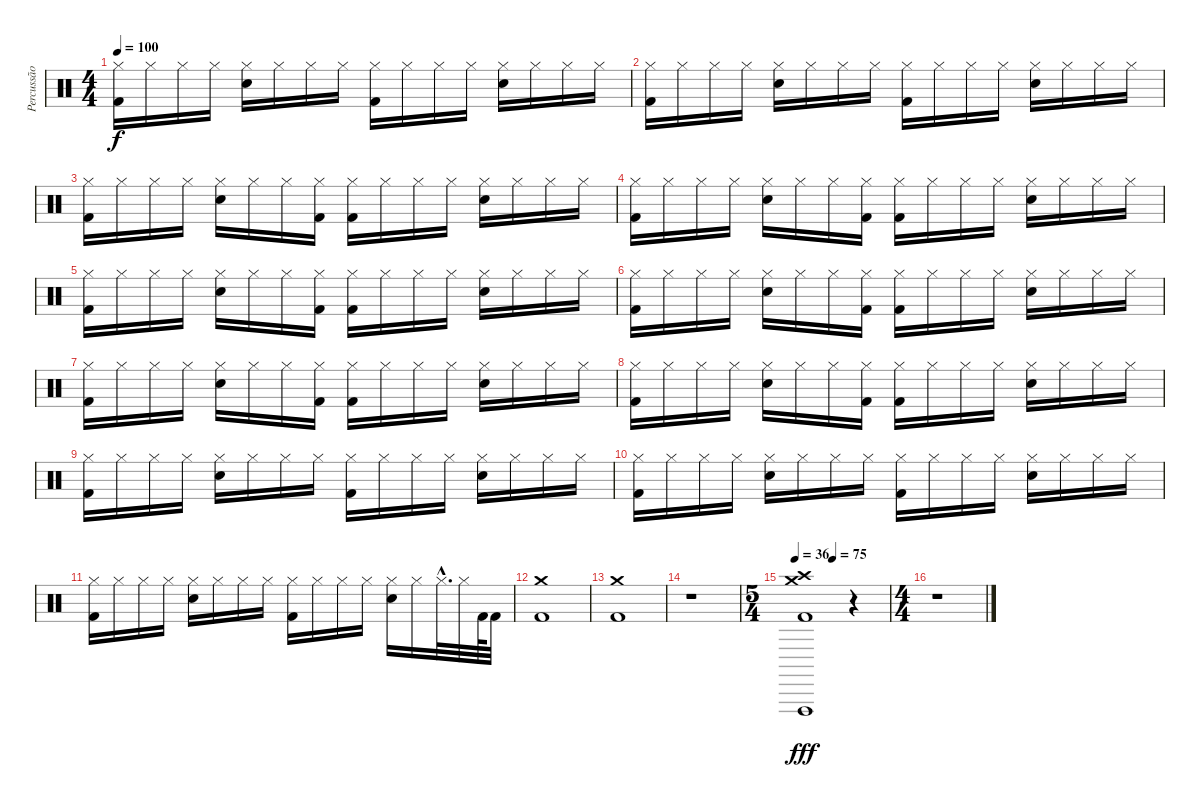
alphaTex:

\track ("Percussão" "Percussão") {instrument percussion}
\staff {score}
\articulation defaults
\ts (4 4)
\tempo 100
\clef neutral
\ks c
("Hi-Hat (closed)" "Kick (hit) 2").16{dy f} "Hi-Hat (closed)".16 "Hi-Hat (closed)".16 "Hi-Hat (closed)".16 ("Hi-Hat (closed)" "Snare (hit) 2").16 "Hi-Hat (closed)".16 "Hi-Hat (closed)".16 "Hi-Hat (closed)".16 ("Hi-Hat (closed)" "Kick (hit) 2").16 "Hi-Hat (closed)".16 "Hi-Hat (closed)".16 "Hi-Hat (closed)".16 ("Hi-Hat (closed)" "Snare (hit) 2").16 "Hi-Hat (closed)".16 "Hi-Hat (closed)".16 "Hi-Hat (closed)".16 |
("Hi-Hat (closed)" "Kick (hit) 2").16 "Hi-Hat (closed)".16 "Hi-Hat (closed)".16 "Hi-Hat (closed)".16 ("Hi-Hat (closed)" "Snare (hit) 2").16 "Hi-Hat (closed)".16 "Hi-Hat (closed)".16 "Hi-Hat (closed)".16 ("Hi-Hat (closed)" "Kick (hit) 2").16 "Hi-Hat (closed)".16 "Hi-Hat (closed)".16 "Hi-Hat (closed)".16 ("Hi-Hat (closed)" "Snare (hit) 2").16 "Hi-Hat (closed)".16 "Hi-Hat (closed)".16 "Hi-Hat (closed)".16 |
("Hi-Hat (closed)" "Kick (hit) 2").16 "Hi-Hat (closed)".16 "Hi-Hat (closed)".16 "Hi-Hat (closed)".16 ("Hi-Hat (closed)" "Snare (hit) 2").16 "Hi-Hat (closed)".16 "Hi-Hat (closed)".16 ("Hi-Hat (closed)" "Kick (hit) 2").16 ("Hi-Hat (closed)" "Kick (hit) 2").16 "Hi-Hat (closed)".16 "Hi-Hat (closed)".16 "Hi-Hat (closed)".16 ("Hi-Hat (closed)" "Snare (hit) 2").16 "Hi-Hat (closed)".16 "Hi-Hat (closed)".16 "Hi-Hat (closed)".16 |
("Hi-Hat (closed)" "Kick (hit) 2").16 "Hi-Hat (closed)".16 "Hi-Hat (closed)".16 "Hi-Hat (closed)".16 ("Hi-Hat (closed)" "Snare (hit) 2").16 "Hi-Hat (closed)".16 "Hi-Hat (closed)".16 ("Hi-Hat (closed)" "Kick (hit) 2").16 ("Hi-Hat (closed)" "Kick (hit) 2").16 "Hi-Hat (closed)".16 "Hi-Hat (closed)".16 "Hi-Hat (closed)".16 ("Hi-Hat (closed)" "Snare (hit) 2").16 "Hi-Hat (closed)".16 "Hi-Hat (closed)".16 "Hi-Hat (closed)".16 |
("Hi-Hat (closed)" "Kick (hit) 2").16 "Hi-Hat (closed)".16 "Hi-Hat (closed)".16 "Hi-Hat (closed)".16 ("Hi-Hat (closed)" "Snare (hit) 2").16 "Hi-Hat (closed)".16 "Hi-Hat (closed)".16 ("Hi-Hat (closed)" "Kick (hit) 2").16 ("Hi-Hat (closed)" "Kick (hit) 2").16 "Hi-Hat (closed)".16 "Hi-Hat (closed)".16 "Hi-Hat (closed)".16 ("Hi-Hat (closed)" "Snare (hit) 2").16 "Hi-Hat (closed)".16 "Hi-Hat (closed)".16 "Hi-Hat (closed)".16 |
("Hi-Hat (closed)" "Kick (hit) 2").16 "Hi-Hat (closed)".16 "Hi-Hat (closed)".16 "Hi-Hat (closed)".16 ("Hi-Hat (closed)" "Snare (hit) 2").16 "Hi-Hat (closed)".16 "Hi-Hat (closed)".16 ("Hi-Hat (closed)" "Kick (hit) 2").16 ("Hi-Hat (closed)" "Kick (hit) 2").16 "Hi-Hat (closed)".16 "Hi-Hat (closed)".16 "Hi-Hat (closed)".16 ("Hi-Hat (closed)" "Snare (hit) 2").16 "Hi-Hat (closed)".16 "Hi-Hat (closed)".16 "Hi-Hat (closed)".16 |
("Hi-Hat (closed)" "Kick (hit) 2").16 "Hi-Hat (closed)".16 "Hi-Hat (closed)".16 "Hi-Hat (closed)".16 ("Hi-Hat (closed)" "Snare (hit) 2").16 "Hi-Hat (closed)".16 "Hi-Hat (closed)".16 ("Hi-Hat (closed)" "Kick (hit) 2").16 ("Hi-Hat (closed)" "Kick (hit) 2").16 "Hi-Hat (closed)".16 "Hi-Hat (closed)".16 "Hi-Hat (closed)".16 ("Hi-Hat (closed)" "Snare (hit) 2").16 "Hi-Hat (closed)".16 "Hi-Hat (closed)".16 "Hi-Hat (closed)".16 |
("Hi-Hat (closed)" "Kick (hit) 2").16 "Hi-Hat (closed)".16 "Hi-Hat (closed)".16 "Hi-Hat (closed)".16 ("Hi-Hat (closed)" "Snare (hit) 2").16 "Hi-Hat (closed)".16 "Hi-Hat (closed)".16 ("Hi-Hat (closed)" "Kick (hit) 2").16 ("Hi-Hat (closed)" "Kick (hit) 2").16 "Hi-Hat (closed)".16 "Hi-Hat (closed)".16 "Hi-Hat (closed)".16 ("Hi-Hat (closed)" "Snare (hit) 2").16 "Hi-Hat (closed)".16 "Hi-Hat (closed)".16 "Hi-Hat (closed)".16 |
("Hi-Hat (closed)" "Kick (hit) 2").16 "Hi-Hat (closed)".16 "Hi-Hat (closed)".16 "Hi-Hat (closed)".16 ("Hi-Hat (closed)" "Snare (hit) 2").16 "Hi-Hat (closed)".16 "Hi-Hat (closed)".16 "Hi-Hat (closed)".16 ("Hi-Hat (closed)" "Kick (hit) 2").16 "Hi-Hat (closed)".16 "Hi-Hat (closed)".16 "Hi-Hat (closed)".16 ("Hi-Hat (closed)" "Snare (hit) 2").16 "Hi-Hat (closed)".16 "Hi-Hat (closed)".16 "Hi-Hat (closed)".16 |
("Hi-Hat (closed)" "Kick (hit) 2").16 "Hi-Hat (closed)".16 "Hi-Hat (closed)".16 "Hi-Hat (closed)".16 ("Hi-Hat (closed)" "Snare (hit) 2").16 "Hi-Hat (closed)".16 "Hi-Hat (closed)".16 "Hi-Hat (closed)".16 ("Hi-Hat (closed)" "Kick (hit) 2").16 "Hi-Hat (closed)".16 "Hi-Hat (closed)".16 "Hi-Hat (closed)".16 ("Hi-Hat (closed)" "Snare (hit) 2").16 "Hi-Hat (closed)".16 "Hi-Hat (closed)".16 "Hi-Hat (closed)".16 |
("Hi-Hat (closed)" "Kick (hit) 2").16 "Hi-Hat (closed)".16 "Hi-Hat (closed)".16 "Hi-Hat (closed)".16 ("Hi-Hat (closed)" "Snare (hit) 2").16 "Hi-Hat (closed)".16 "Hi-Hat (closed)".16 "Hi-Hat (closed)".16 ("Hi-Hat (closed)" "Kick (hit) 2").16 "Hi-Hat (closed)".16 "Hi-Hat (closed)".16 "Hi-Hat (closed)".16 ("Hi-Hat (closed)" "Snare (hit) 2").16 "Hi-Hat (closed)".16 "Hi-Hat (closed)"{hac}.32{d} "Hi-Hat (closed)".32 "Kick (hit) 2".64 "Kick (hit) 2".32 |
("Kick (hit) 2" "Crash medium (hit)").1 |
("Crash medium (hit)" "Kick (hit) 2").1 |
r.1 |
\ts (5 4)
\tempo 36
\tempo (75 0.4)
("Kick (hit) 2" "Vibraslap (hit)" "Crash high (hit)" "Crash medium (hit)").1{dy fff} r.4 |
\ts (4 4)
r.1
